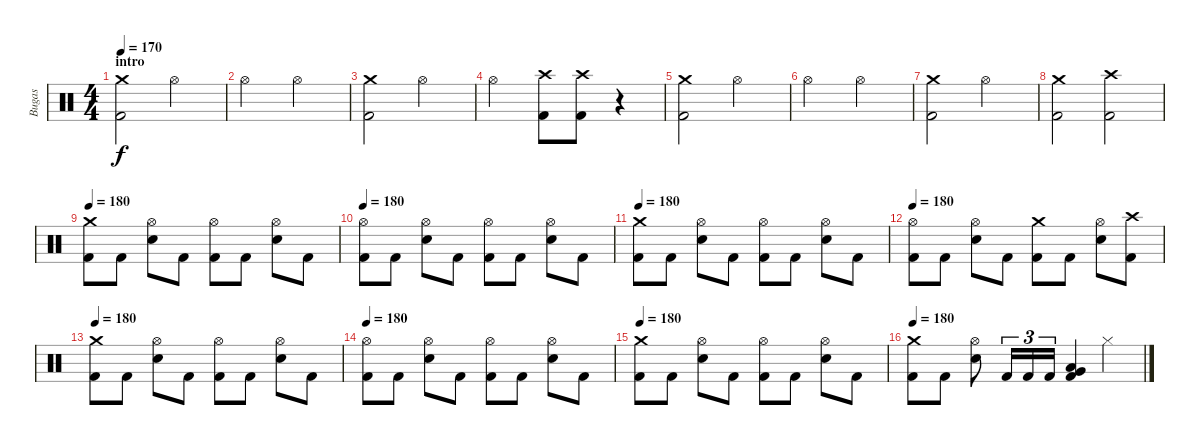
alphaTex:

\track ("Bugas" "Bugas") {instrument percussion}
\staff {score}
\articulation defaults
\ts (4 4)
\section ("" "intro")
\tempo 170
\clef neutral
\ks c
("Crash medium (hit)" "Kick (hit) 2").2{dy f} "Hi-Hat (open)".2 |
"Hi-Hat (open)".2 "Hi-Hat (open)".2 |
("Crash medium (hit)" "Kick (hit) 2").2 "Hi-Hat (open)".2 |
"Hi-Hat (open)".2 ("Crash high (hit)" "Kick (hit) 2").8 ("Crash high (hit)" "Kick (hit) 2").8 r.4 |
("Crash medium (hit)" "Kick (hit) 2").2 "Hi-Hat (open)".2 |
"Hi-Hat (open)".2 "Hi-Hat (open)".2 |
("Crash medium (hit)" "Kick (hit) 2").2 "Hi-Hat (open)".2 |
("Crash medium (hit)" "Kick (hit) 2").2 ("Crash high (hit)" "Kick (hit) 2").2 |
\tempo 180
("Crash medium (hit)" "Kick (hit) 2").8 "Kick (hit) 2".8 ("Hi-Hat (open)" "Electric Snare (hit)").8 "Kick (hit) 2".8 ("Hi-Hat (open)" "Kick (hit) 2").8 "Kick (hit) 2".8 ("Hi-Hat (open)" "Electric Snare (hit)").8 "Kick (hit) 2".8 |
\tempo 180
("Hi-Hat (open)" "Kick (hit) 2").8 "Kick (hit) 2".8 ("Hi-Hat (open)" "Electric Snare (hit)").8 "Kick (hit) 2".8 ("Hi-Hat (open)" "Kick (hit) 2").8 "Kick (hit) 2".8 ("Hi-Hat (open)" "Electric Snare (hit)").8 "Kick (hit) 2".8 |
\tempo 180
("Crash medium (hit)" "Kick (hit) 2").8 "Kick (hit) 2".8 ("Hi-Hat (open)" "Electric Snare (hit)").8 "Kick (hit) 2".8 ("Hi-Hat (open)" "Kick (hit) 2").8 "Kick (hit) 2".8 ("Hi-Hat (open)" "Electric Snare (hit)").8 "Kick (hit) 2".8 |
\tempo 180
("Hi-Hat (open)" "Kick (hit) 2").8 "Kick (hit) 2".8 ("Hi-Hat (open)" "Electric Snare (hit)").8 "Kick (hit) 2".8 ("Crash medium (hit)" "Kick (hit) 2").8 "Kick (hit) 2".8 ("Hi-Hat (open)" "Electric Snare (hit)").8 ("Crash high (hit)" "Kick (hit) 2").8 |
\tempo 180
("Crash medium (hit)" "Kick (hit) 2").8 "Kick (hit) 2".8 ("Hi-Hat (open)" "Electric Snare (hit)").8 "Kick (hit) 2".8 ("Hi-Hat (open)" "Kick (hit) 2").8 "Kick (hit) 2".8 ("Hi-Hat (open)" "Electric Snare (hit)").8 "Kick (hit) 2".8 |
\tempo 180
("Hi-Hat (open)" "Kick (hit) 2").8 "Kick (hit) 2".8 ("Hi-Hat (open)" "Electric Snare (hit)").8 "Kick (hit) 2".8 ("Hi-Hat (open)" "Kick (hit) 2").8 "Kick (hit) 2".8 ("Hi-Hat (open)" "Electric Snare (hit)").8 "Kick (hit) 2".8 |
\tempo 180
("Crash medium (hit)" "Kick (hit) 2").8 "Kick (hit) 2".8 ("Hi-Hat (open)" "Electric Snare (hit)").8 "Kick (hit) 2".8 ("Hi-Hat (open)" "Kick (hit) 2").8 "Kick (hit) 2".8 ("Hi-Hat (open)" "Electric Snare (hit)").8 "Kick (hit) 2".8 |
\tempo 180
("Crash medium (hit)" "Kick (hit) 2").8 "Kick (hit) 2".8 ("Hi-Hat (open)" "Electric Snare (hit)").8 "Kick (hit) 2".16{tu (3 2)} "Kick (hit) 2".16{tu (3 2)} "Kick (hit) 2".16{tu (3 2)} ("Very Low Tom (hit)" "Kick (hit) 2" "Low Tom (hit)").4 "Hi-Hat (closed)".4
